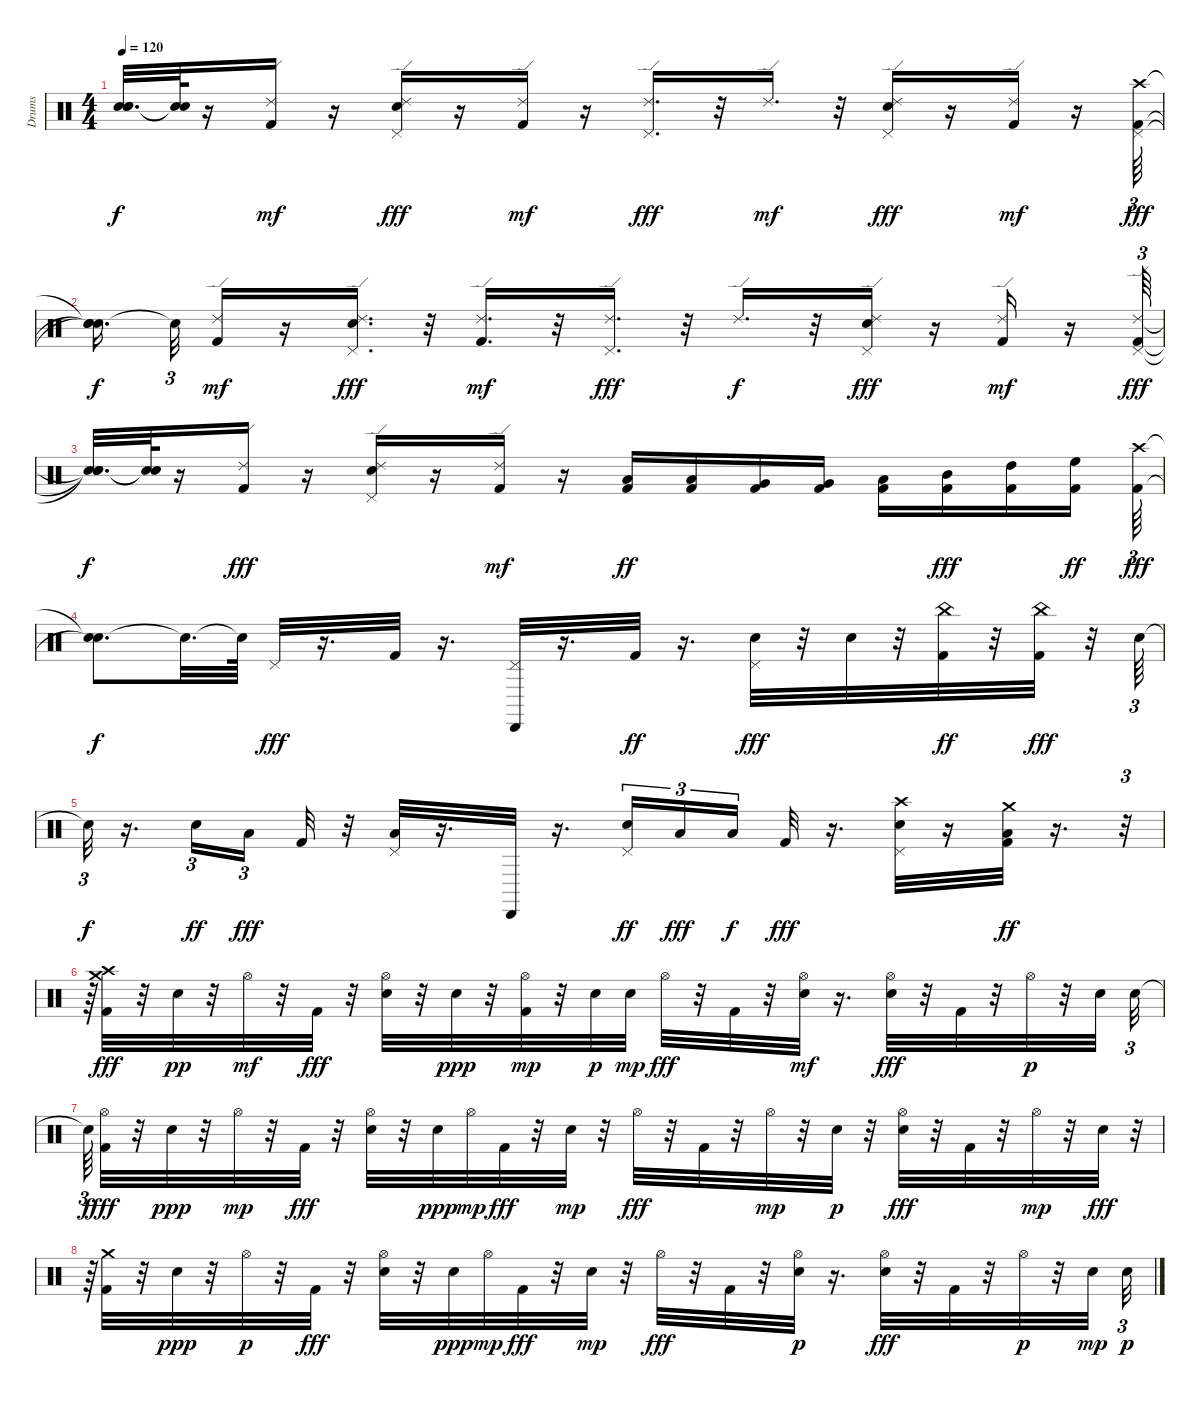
\track ("Drums" "Drums") {instrument percussion}
\staff {score}
\articulation defaults
\ts (4 4)
\tempo 120
\clef neutral
\ks c
("Snare (hit)"{t} "Snare (hit)"{t} "Snare (hit)"{t}).32{d dy f} ("Snare (hit)"{t} "Snare (hit)"{t}).64 r.16 ("Kick (hit) 2" "Ride (edge) 2").16{dy mf} r.16 ("Ride (edge) 2" "Pedal Hi-Hat (hit)" "Snare (hit) 2").16{dy fff} r.16 ("Kick (hit) 2" "Ride (edge) 2").16{dy mf} r.16 ("Pedal Hi-Hat (hit)" "Ride (edge) 2").16{d dy fff} r.32 "Ride (edge) 2".16{d dy mf} r.32 ("Pedal Hi-Hat (hit)" "Ride (edge) 2" "Snare (hit) 2").16{dy fff} r.16 ("Kick (hit) 2" "Ride (edge) 2").16{dy mf} r.16 ("Kick (hit) 2" "Crash high (hit)" "Pedal Hi-Hat (hit)").64{tu (3 2) dy fff} |
("Snare (hit)"{t} "Snare (hit)"{t} "Snare (hit)"{t}).16{d dy f beam splitsecondary} "Snare (hit)"{t}.32{tu (3 2)} ("Kick (hit) 2" "Ride (edge) 2").16{dy mf} r.16 ("Pedal Hi-Hat (hit)" "Ride (edge) 2" "Snare (hit) 2").16{d dy fff} r.32 ("Kick (hit) 2" "Ride (edge) 2").16{d dy mf} r.32 ("Pedal Hi-Hat (hit)" "Ride (edge) 2").16{d dy fff} r.32 "Ride (edge) 2".16{d dy f} r.32 ("Pedal Hi-Hat (hit)" "Ride (edge) 2" "Snare (hit) 2").16{dy fff} r.16 ("Kick (hit) 2" "Ride (edge) 2").16{dy mf} r.16 ("Ride (edge) 2" "Kick (hit) 2" "Pedal Hi-Hat (hit)").64{tu (3 2) dy fff} |
("Snare (hit)"{t} "Snare (hit)"{t} "Snare (hit)"{t}).32{d dy f} ("Snare (hit)"{t} "Snare (hit)"{t}).64 r.16 ("Kick (hit) 2" "Ride (edge) 2").16{dy fff} r.16 ("Ride (edge) 2" "Pedal Hi-Hat (hit)" "Snare (hit) 2").16 r.16 ("Kick (hit) 2" "Ride (edge) 2").16{dy mf} r.16 ("Kick (hit) 2" "Low Floor Tom (hit)").16{dy ff} ("Kick (hit) 2" "Low Floor Tom (hit)").16 ("Very Low Tom (hit)" "Kick (hit) 2").16 ("Kick (hit) 2" "Very Low Tom (hit)").16 ("Kick (hit) 2" "Low Tom (hit)").16 ("Mid Tom (hit)" "Kick (hit) 2").16{dy fff} ("Kick (hit) 2" "High Tom (hit)").16 ("High Floor Tom (hit)" "Kick (hit) 2").16{dy ff} ("Crash high (hit)" "Kick (hit) 2").64{tu (3 2) dy fff} |
("Snare (hit)"{t} "Snare (hit)"{t}).8{d dy f} "Snare (hit)"{t}.32{d} "Snare (hit)"{t}.64 "Pedal Hi-Hat (hit)".32{dy fff} r.16{d} "Kick (hit) 2".32 r.16{d} ("Cabasa (hit)" "Pedal Hi-Hat (hit)").32 r.16{d} "Kick (hit) 2".32{dy ff} r.16{d} ("Pedal Hi-Hat (hit)" "Snare (hit) 2").32{dy fff} r.32 "Snare (hit) 2".32 r.32 ("China (hit)" "Kick (hit) 2").32{dy ff} r.32 ("Kick (hit) 2" "China (hit)").32{dy fff} r.32 "Snare (hit) 2".64{tu (3 2)} |
"Snare (hit)"{t}.32{tu (3 2) dy f} r.16{d} "Snare (hit) 2".16{tu (3 2) dy ff} "Low Tom (hit)".16{tu (3 2) dy fff beam splitsecondary} "Kick (hit) 2".32 r.32 ("Pedal Hi-Hat (hit)" "Low Floor Tom (hit)").32 r.16{d} "Cabasa (hit)".32 r.16{d} ("Pedal Hi-Hat (hit)" "Snare (hit) 2").16{tu (3 2) dy ff} "Low Tom (hit)".16{tu (3 2) dy fff} "Low Floor Tom (hit)".16{tu (3 2) dy f beam splitsecondary} "Kick (hit) 2".32{dy fff} r.16{d} ("Pedal Hi-Hat (hit)" "Snare (hit) 2" "Crash high (hit)").32 r.16 ("Crash medium (hit)" "Low Tom (hit)" "Kick (hit) 2").32{dy ff} r.16{d} r.32{tu (3 2)} |
r.64{tu (3 2)} ("Kick (hit) 2" "Crash medium (hit)" "Crash high (hit)").32{dy fff} r.32 "Snare (hit) 2".32{dy pp} r.32 "Hi-Hat (open)".32{dy mf} r.32 "Kick (hit) 2".32{dy fff} r.32 ("Snare (hit) 2" "Hi-Hat (open)").32 r.32 "Snare (hit) 2".32{dy ppp} r.32 ("Kick (hit) 2" "Hi-Hat (open)").32{dy mp} r.32 "Snare (hit) 2".32{dy p} "Snare (hit) 2".32{dy mp} "Hi-Hat (open)".32{dy fff} r.32 "Kick (hit) 2".32 r.32 ("Snare (hit) 2" "Hi-Hat (open)").32{dy mf} r.16{d} ("Snare (hit) 2" "Hi-Hat (open)").32{dy fff} r.32 "Kick (hit) 2".32 r.32 "Hi-Hat (open)".32{dy p} r.32 "Snare (hit) 2".32 "Snare (hit) 2".32{tu (3 2)} |
"Snare (hit)"{t}.64{tu (3 2) dy f} ("Kick (hit) 2" "Hi-Hat (open)").32{dy fff} r.32 "Snare (hit) 2".32{dy ppp} r.32 "Hi-Hat (open)".32{dy mp} r.32 "Kick (hit) 2".32{dy fff} r.32 ("Snare (hit) 2" "Hi-Hat (open)").32 r.32 "Snare (hit) 2".32{dy ppp} "Hi-Hat (open)".32{dy mp} "Kick (hit) 2".32{dy fff} r.32 "Snare (hit) 2".32{dy mp} r.32 "Hi-Hat (open)".32{dy fff} r.32 "Kick (hit) 2".32 r.32 "Hi-Hat (open)".32{dy mp} r.32 "Snare (hit) 2".32{dy p} r.32 ("Snare (hit) 2" "Hi-Hat (open)").32{dy fff} r.32 "Kick (hit) 2".32 r.32 "Hi-Hat (open)".32{dy mp} r.32 "Snare (hit) 2".32{dy fff} r.32{tu (3 2)} |
r.64{tu (3 2)} ("Kick (hit) 2" "Crash medium (hit)").32 r.32 "Snare (hit) 2".32{dy ppp} r.32 "Hi-Hat (open)".32{dy p} r.32 "Kick (hit) 2".32{dy fff} r.32 ("Snare (hit) 2" "Hi-Hat (open)").32 r.32 "Snare (hit) 2".32{dy ppp} "Hi-Hat (open)".32{dy mp} "Kick (hit) 2".32{dy fff} r.32 "Snare (hit) 2".32{dy mp} r.32 "Hi-Hat (open)".32{dy fff} r.32 "Kick (hit) 2".32 r.32 ("Hi-Hat (open)" "Snare (hit) 2").32{dy p} r.16{d} ("Snare (hit) 2" "Hi-Hat (open)").32{dy fff} r.32 "Kick (hit) 2".32 r.32 "Hi-Hat (open)".32{dy p} r.32 "Snare (hit) 2".32{dy mp} "Snare (hit) 2".32{tu (3 2) dy p}
